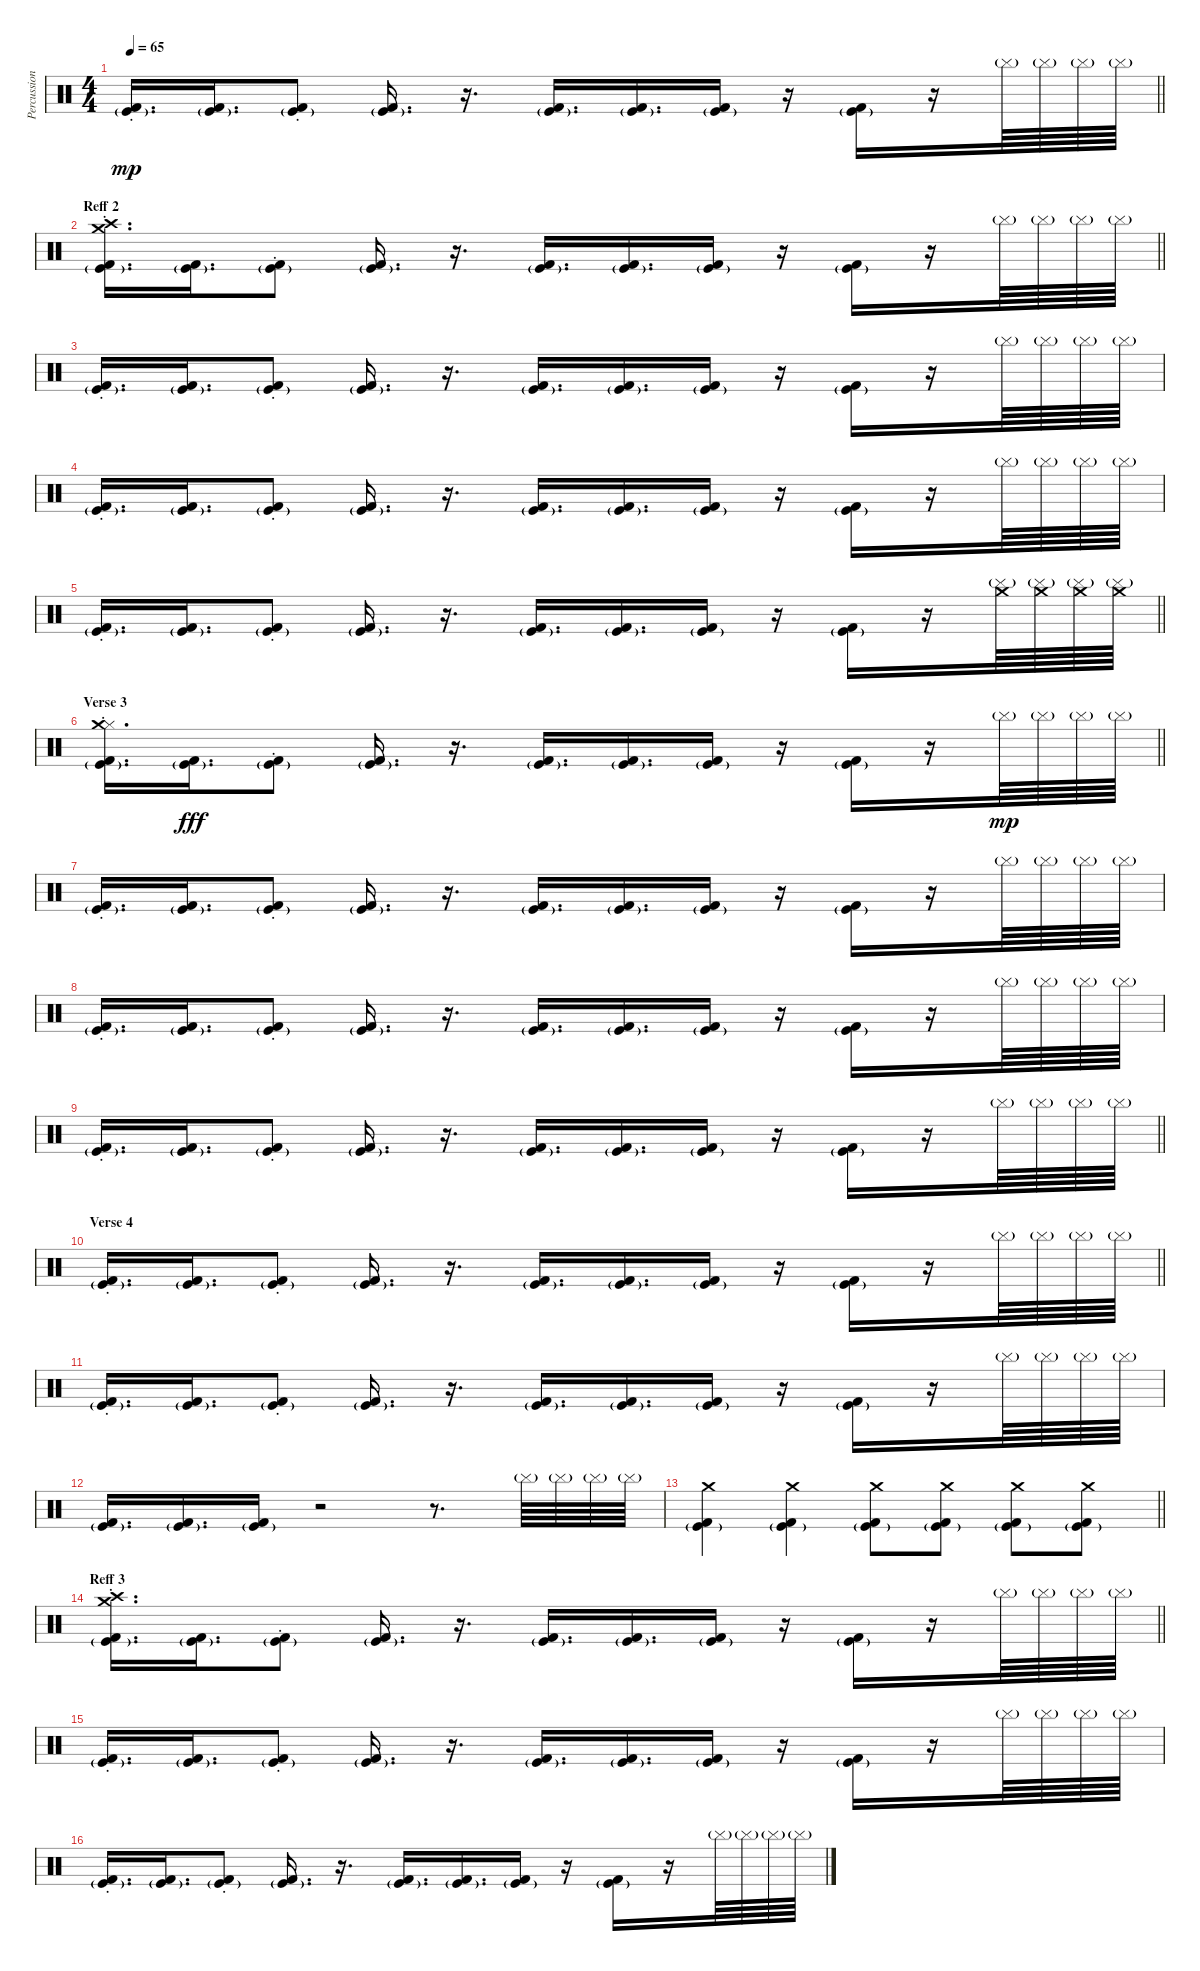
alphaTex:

\track ("Percussion 1 (Bass)" "Percussion") {instrument percussion}
\staff {score}
\articulation defaults
\ts (4 4)
\tempo 65
\clef neutral
\barLineRight lightlight
\ks c
("Kick (hit)"{g st} "Kick (hit) 2").16{d dy mp} ("Kick (hit)"{g} "Kick (hit) 2").16{d} ("Kick (hit)"{g} "Kick (hit) 2"{st}).8 ("Kick (hit)"{g} "Kick (hit) 2").16{d} r.16{d} ("Kick (hit)"{g} "Kick (hit) 2").16{d} ("Kick (hit)"{g} "Kick (hit) 2").16{d} ("Kick (hit)"{g} "Kick (hit) 2").16 r.16 ("Kick (hit)"{g} "Kick (hit) 2").16 r.16 "Cymbal (hit)"{g}.64 "Cymbal (hit)"{g}.64 "Cymbal (hit)"{g}.64 "Cymbal (hit)"{g}.64 |
\section ("" "Reff 2")
\barLineRight lightlight
("Crash medium (hit)" "Kick (hit)"{g st} "Kick (hit) 2" "Crash high (hit)").16{d} ("Kick (hit)"{g} "Kick (hit) 2").16{d} ("Kick (hit)"{g} "Kick (hit) 2"{st}).8 ("Kick (hit)"{g} "Kick (hit) 2").16{d} r.16{d} ("Kick (hit)"{g} "Kick (hit) 2").16{d} ("Kick (hit)"{g} "Kick (hit) 2").16{d} ("Kick (hit)"{g} "Kick (hit) 2").16 r.16 ("Kick (hit)"{g} "Kick (hit) 2").16 r.16 "Cymbal (hit)"{g}.64 "Cymbal (hit)"{g}.64 "Cymbal (hit)"{g}.64 "Cymbal (hit)"{g}.64 |
("Kick (hit)"{g st} "Kick (hit) 2").16{d} ("Kick (hit)"{g} "Kick (hit) 2").16{d} ("Kick (hit)"{g} "Kick (hit) 2"{st}).8 ("Kick (hit)"{g} "Kick (hit) 2").16{d} r.16{d} ("Kick (hit)"{g} "Kick (hit) 2").16{d} ("Kick (hit)"{g} "Kick (hit) 2").16{d} ("Kick (hit)"{g} "Kick (hit) 2").16 r.16 ("Kick (hit)"{g} "Kick (hit) 2").16 r.16 "Cymbal (hit)"{g}.64 "Cymbal (hit)"{g}.64 "Cymbal (hit)"{g}.64 "Cymbal (hit)"{g}.64 |
("Kick (hit)"{g st} "Kick (hit) 2").16{d} ("Kick (hit)"{g} "Kick (hit) 2").16{d} ("Kick (hit)"{g} "Kick (hit) 2"{st}).8 ("Kick (hit)"{g} "Kick (hit) 2").16{d} r.16{d} ("Kick (hit)"{g} "Kick (hit) 2").16{d} ("Kick (hit)"{g} "Kick (hit) 2").16{d} ("Kick (hit)"{g} "Kick (hit) 2").16 r.16 ("Kick (hit)"{g} "Kick (hit) 2").16 r.16 "Cymbal (hit)"{g}.64 "Cymbal (hit)"{g}.64 "Cymbal (hit)"{g}.64 "Cymbal (hit)"{g}.64 |
\barLineRight lightlight
("Kick (hit)"{g st} "Kick (hit) 2").16{d} ("Kick (hit)"{g} "Kick (hit) 2").16{d} ("Kick (hit)"{g} "Kick (hit) 2"{st}).8 ("Kick (hit)"{g} "Kick (hit) 2").16{d} r.16{d} ("Kick (hit)"{g} "Kick (hit) 2").16{d} ("Kick (hit)"{g} "Kick (hit) 2").16{d} ("Kick (hit)"{g} "Kick (hit) 2").16 r.16 ("Kick (hit)"{g} "Kick (hit) 2").16 r.16 ("Cymbal (hit)"{g} "Crash medium (hit)").64 ("Cymbal (hit)"{g} "Crash medium (hit)").64 ("Cymbal (hit)"{g} "Crash medium (hit)").64 ("Cymbal (hit)"{g} "Crash medium (hit)").64 |
\section ("" "Verse 3")
\barLineRight lightlight
("Hi-Hat (closed)" "Kick (hit)"{g st} "Kick (hit) 2" "Crash medium (hit)").16{d} ("Kick (hit)"{g} "Kick (hit) 2").16{d dy fff} ("Kick (hit)"{g} "Kick (hit) 2"{st}).8 ("Kick (hit)"{g} "Kick (hit) 2").16{d} r.16{d} ("Kick (hit)"{g} "Kick (hit) 2").16{d} ("Kick (hit)"{g} "Kick (hit) 2").16{d} ("Kick (hit)"{g} "Kick (hit) 2").16 r.16 ("Kick (hit)"{g} "Kick (hit) 2").16 r.16 "Cymbal (hit)"{g}.64{dy mp} "Cymbal (hit)"{g}.64 "Cymbal (hit)"{g}.64 "Cymbal (hit)"{g}.64 |
("Kick (hit)"{g st} "Kick (hit) 2").16{d} ("Kick (hit)"{g} "Kick (hit) 2").16{d} ("Kick (hit)"{g} "Kick (hit) 2"{st}).8 ("Kick (hit)"{g} "Kick (hit) 2").16{d} r.16{d} ("Kick (hit)"{g} "Kick (hit) 2").16{d} ("Kick (hit)"{g} "Kick (hit) 2").16{d} ("Kick (hit)"{g} "Kick (hit) 2").16 r.16 ("Kick (hit)"{g} "Kick (hit) 2").16 r.16 "Cymbal (hit)"{g}.64 "Cymbal (hit)"{g}.64 "Cymbal (hit)"{g}.64 "Cymbal (hit)"{g}.64 |
("Kick (hit)"{g st} "Kick (hit) 2").16{d} ("Kick (hit)"{g} "Kick (hit) 2").16{d} ("Kick (hit)"{g} "Kick (hit) 2"{st}).8 ("Kick (hit)"{g} "Kick (hit) 2").16{d} r.16{d} ("Kick (hit)"{g} "Kick (hit) 2").16{d} ("Kick (hit)"{g} "Kick (hit) 2").16{d} ("Kick (hit)"{g} "Kick (hit) 2").16 r.16 ("Kick (hit)"{g} "Kick (hit) 2").16 r.16 "Cymbal (hit)"{g}.64 "Cymbal (hit)"{g}.64 "Cymbal (hit)"{g}.64 "Cymbal (hit)"{g}.64 |
\barLineRight lightlight
("Kick (hit)"{g st} "Kick (hit) 2").16{d} ("Kick (hit)"{g} "Kick (hit) 2").16{d} ("Kick (hit)"{g} "Kick (hit) 2"{st}).8 ("Kick (hit)"{g} "Kick (hit) 2").16{d} r.16{d} ("Kick (hit)"{g} "Kick (hit) 2").16{d} ("Kick (hit)"{g} "Kick (hit) 2").16{d} ("Kick (hit)"{g} "Kick (hit) 2").16 r.16 ("Kick (hit)"{g} "Kick (hit) 2").16 r.16 "Cymbal (hit)"{g}.64 "Cymbal (hit)"{g}.64 "Cymbal (hit)"{g}.64 "Cymbal (hit)"{g}.64 |
\section ("" "Verse 4")
\barLineRight lightlight
("Kick (hit)"{g st} "Kick (hit) 2").16{d} ("Kick (hit)"{g} "Kick (hit) 2").16{d} ("Kick (hit)"{g} "Kick (hit) 2"{st}).8 ("Kick (hit)"{g} "Kick (hit) 2").16{d} r.16{d} ("Kick (hit)"{g} "Kick (hit) 2").16{d} ("Kick (hit)"{g} "Kick (hit) 2").16{d} ("Kick (hit)"{g} "Kick (hit) 2").16 r.16 ("Kick (hit)"{g} "Kick (hit) 2").16 r.16 "Cymbal (hit)"{g}.64 "Cymbal (hit)"{g}.64 "Cymbal (hit)"{g}.64 "Cymbal (hit)"{g}.64 |
("Kick (hit)"{g st} "Kick (hit) 2").16{d} ("Kick (hit)"{g} "Kick (hit) 2").16{d} ("Kick (hit)"{g} "Kick (hit) 2"{st}).8 ("Kick (hit)"{g} "Kick (hit) 2").16{d} r.16{d} ("Kick (hit)"{g} "Kick (hit) 2").16{d} ("Kick (hit)"{g} "Kick (hit) 2").16{d} ("Kick (hit)"{g} "Kick (hit) 2").16 r.16 ("Kick (hit)"{g} "Kick (hit) 2").16 r.16 "Cymbal (hit)"{g}.64 "Cymbal (hit)"{g}.64 "Cymbal (hit)"{g}.64 "Cymbal (hit)"{g}.64 |
("Kick (hit)"{g} "Kick (hit) 2").16{d} ("Kick (hit)"{g} "Kick (hit) 2").16{d} ("Kick (hit)"{g} "Kick (hit) 2").16 r.2 r.8{d} "Cymbal (hit)"{g}.64 "Cymbal (hit)"{g}.64 "Cymbal (hit)"{g}.64 "Cymbal (hit)"{g}.64 |
\barLineRight lightlight
("Kick (hit)"{g} "Kick (hit) 2" "Crash medium (hit)").4 ("Kick (hit)"{g} "Kick (hit) 2" "Crash medium (hit)").4 ("Kick (hit)"{g} "Kick (hit) 2" "Crash medium (hit)").8 ("Kick (hit)"{g} "Kick (hit) 2" "Crash medium (hit)").8 ("Kick (hit)"{g} "Kick (hit) 2" "Crash medium (hit)").8 ("Kick (hit)"{g} "Kick (hit) 2" "Crash medium (hit)").8 |
\section ("" "Reff 3")
\barLineRight lightlight
("Crash medium (hit)" "Kick (hit)"{g st} "Kick (hit) 2" "Crash high (hit)").16{d} ("Kick (hit)"{g} "Kick (hit) 2").16{d} ("Kick (hit)"{g} "Kick (hit) 2"{st}).8 ("Kick (hit)"{g} "Kick (hit) 2").16{d} r.16{d} ("Kick (hit)"{g} "Kick (hit) 2").16{d} ("Kick (hit)"{g} "Kick (hit) 2").16{d} ("Kick (hit)"{g} "Kick (hit) 2").16 r.16 ("Kick (hit)"{g} "Kick (hit) 2").16 r.16 "Cymbal (hit)"{g}.64 "Cymbal (hit)"{g}.64 "Cymbal (hit)"{g}.64 "Cymbal (hit)"{g}.64 |
("Kick (hit)"{g st} "Kick (hit) 2").16{d} ("Kick (hit)"{g} "Kick (hit) 2").16{d} ("Kick (hit)"{g} "Kick (hit) 2"{st}).8 ("Kick (hit)"{g} "Kick (hit) 2").16{d} r.16{d} ("Kick (hit)"{g} "Kick (hit) 2").16{d} ("Kick (hit)"{g} "Kick (hit) 2").16{d} ("Kick (hit)"{g} "Kick (hit) 2").16 r.16 ("Kick (hit)"{g} "Kick (hit) 2").16 r.16 "Cymbal (hit)"{g}.64 "Cymbal (hit)"{g}.64 "Cymbal (hit)"{g}.64 "Cymbal (hit)"{g}.64 |
("Kick (hit)"{g st} "Kick (hit) 2").16{d} ("Kick (hit)"{g} "Kick (hit) 2").16{d} ("Kick (hit)"{g} "Kick (hit) 2"{st}).8 ("Kick (hit)"{g} "Kick (hit) 2").16{d} r.16{d} ("Kick (hit)"{g} "Kick (hit) 2").16{d} ("Kick (hit)"{g} "Kick (hit) 2").16{d} ("Kick (hit)"{g} "Kick (hit) 2").16 r.16 ("Kick (hit)"{g} "Kick (hit) 2").16 r.16 "Cymbal (hit)"{g}.64 "Cymbal (hit)"{g}.64 "Cymbal (hit)"{g}.64 "Cymbal (hit)"{g}.64
